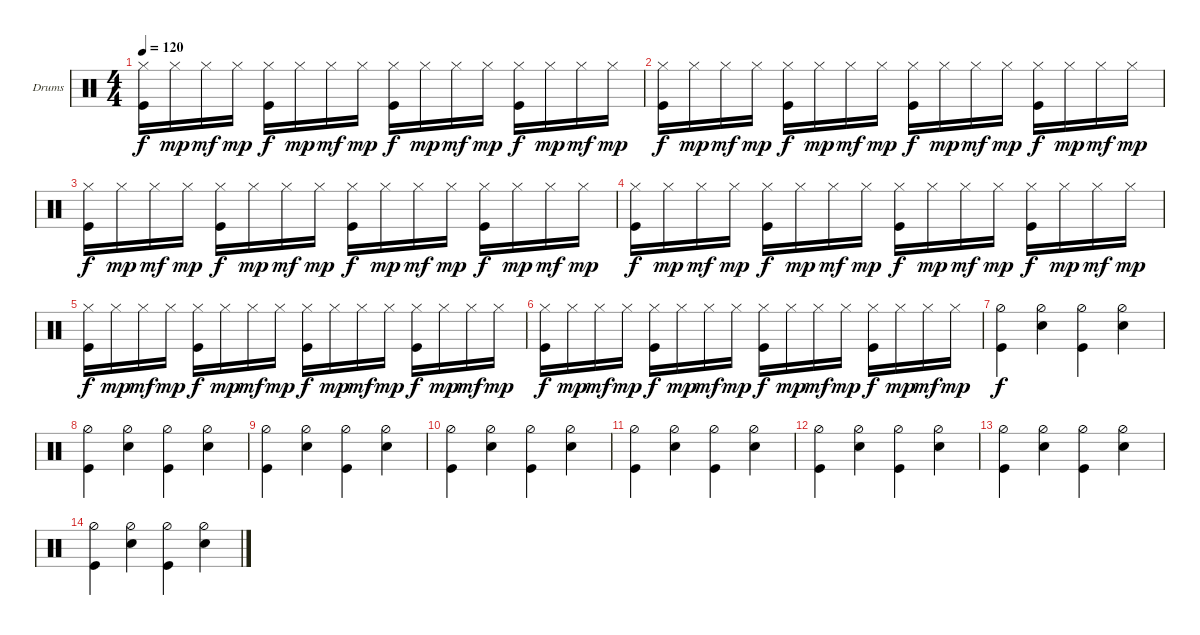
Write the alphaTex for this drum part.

\defaultSystemsLayout 4
\bracketExtendMode groupsimilarinstruments
\firstSystemTrackNameOrientation horizontal
\otherSystemsTrackNameOrientation horizontal
\track ("Drumkit" "Drums") {instrument percussion}
\staff {score}
\articulation defaults
\ts (4 4)
\tempo 120
\clef neutral
\ks c
("Kick (hit)" "Hi-Hat (closed)").16{dy f} "Hi-Hat (closed)".16{dy mp} "Hi-Hat (closed)".16{dy mf} "Hi-Hat (closed)".16{dy mp} ("Kick (hit)" "Hi-Hat (closed)").16{dy f} "Hi-Hat (closed)".16{dy mp} "Hi-Hat (closed)".16{dy mf} "Hi-Hat (closed)".16{dy mp} ("Kick (hit)" "Hi-Hat (closed)").16{dy f} "Hi-Hat (closed)".16{dy mp} "Hi-Hat (closed)".16{dy mf} "Hi-Hat (closed)".16{dy mp} ("Kick (hit)" "Hi-Hat (closed)").16{dy f} "Hi-Hat (closed)".16{dy mp} "Hi-Hat (closed)".16{dy mf} "Hi-Hat (closed)".16{dy mp} |
("Kick (hit)" "Hi-Hat (closed)").16{dy f} "Hi-Hat (closed)".16{dy mp} "Hi-Hat (closed)".16{dy mf} "Hi-Hat (closed)".16{dy mp} ("Kick (hit)" "Hi-Hat (closed)").16{dy f} "Hi-Hat (closed)".16{dy mp} "Hi-Hat (closed)".16{dy mf} "Hi-Hat (closed)".16{dy mp} ("Kick (hit)" "Hi-Hat (closed)").16{dy f} "Hi-Hat (closed)".16{dy mp} "Hi-Hat (closed)".16{dy mf} "Hi-Hat (closed)".16{dy mp} ("Kick (hit)" "Hi-Hat (closed)").16{dy f} "Hi-Hat (closed)".16{dy mp} "Hi-Hat (closed)".16{dy mf} "Hi-Hat (closed)".16{dy mp} |
("Kick (hit)" "Hi-Hat (closed)").16{dy f} "Hi-Hat (closed)".16{dy mp} "Hi-Hat (closed)".16{dy mf} "Hi-Hat (closed)".16{dy mp} ("Kick (hit)" "Hi-Hat (closed)").16{dy f} "Hi-Hat (closed)".16{dy mp} "Hi-Hat (closed)".16{dy mf} "Hi-Hat (closed)".16{dy mp} ("Kick (hit)" "Hi-Hat (closed)").16{dy f} "Hi-Hat (closed)".16{dy mp} "Hi-Hat (closed)".16{dy mf} "Hi-Hat (closed)".16{dy mp} ("Kick (hit)" "Hi-Hat (closed)").16{dy f} "Hi-Hat (closed)".16{dy mp} "Hi-Hat (closed)".16{dy mf} "Hi-Hat (closed)".16{dy mp} |
("Kick (hit)" "Hi-Hat (closed)").16{dy f} "Hi-Hat (closed)".16{dy mp} "Hi-Hat (closed)".16{dy mf} "Hi-Hat (closed)".16{dy mp} ("Kick (hit)" "Hi-Hat (closed)").16{dy f} "Hi-Hat (closed)".16{dy mp} "Hi-Hat (closed)".16{dy mf} "Hi-Hat (closed)".16{dy mp} ("Kick (hit)" "Hi-Hat (closed)").16{dy f} "Hi-Hat (closed)".16{dy mp} "Hi-Hat (closed)".16{dy mf} "Hi-Hat (closed)".16{dy mp} ("Kick (hit)" "Hi-Hat (closed)").16{dy f} "Hi-Hat (closed)".16{dy mp} "Hi-Hat (closed)".16{dy mf} "Hi-Hat (closed)".16{dy mp} |
("Kick (hit)" "Hi-Hat (closed)").16{dy f} "Hi-Hat (closed)".16{dy mp} "Hi-Hat (closed)".16{dy mf} "Hi-Hat (closed)".16{dy mp} ("Kick (hit)" "Hi-Hat (closed)").16{dy f} "Hi-Hat (closed)".16{dy mp} "Hi-Hat (closed)".16{dy mf} "Hi-Hat (closed)".16{dy mp} ("Kick (hit)" "Hi-Hat (closed)").16{dy f} "Hi-Hat (closed)".16{dy mp} "Hi-Hat (closed)".16{dy mf} "Hi-Hat (closed)".16{dy mp} ("Kick (hit)" "Hi-Hat (closed)").16{dy f} "Hi-Hat (closed)".16{dy mp} "Hi-Hat (closed)".16{dy mf} "Hi-Hat (closed)".16{dy mp} |
("Kick (hit)" "Hi-Hat (closed)").16{dy f} "Hi-Hat (closed)".16{dy mp} "Hi-Hat (closed)".16{dy mf} "Hi-Hat (closed)".16{dy mp} ("Kick (hit)" "Hi-Hat (closed)").16{dy f} "Hi-Hat (closed)".16{dy mp} "Hi-Hat (closed)".16{dy mf} "Hi-Hat (closed)".16{dy mp} ("Kick (hit)" "Hi-Hat (closed)").16{dy f} "Hi-Hat (closed)".16{dy mp} "Hi-Hat (closed)".16{dy mf} "Hi-Hat (closed)".16{dy mp} ("Kick (hit)" "Hi-Hat (closed)").16{dy f} "Hi-Hat (closed)".16{dy mp} "Hi-Hat (closed)".16{dy mf} "Hi-Hat (closed)".16{dy mp} |
("Kick (hit)" "Hi-Hat (half)").4{dy f} ("Snare (hit) 2" "Hi-Hat (half)").4 ("Kick (hit)" "Hi-Hat (half)").4 ("Snare (hit) 2" "Hi-Hat (half)").4 |
("Kick (hit)" "Hi-Hat (half)").4 ("Snare (hit) 2" "Hi-Hat (half)").4 ("Kick (hit)" "Hi-Hat (half)").4 ("Snare (hit) 2" "Hi-Hat (half)").4 |
("Kick (hit)" "Hi-Hat (half)").4 ("Snare (hit) 2" "Hi-Hat (half)").4 ("Kick (hit)" "Hi-Hat (half)").4 ("Snare (hit) 2" "Hi-Hat (half)").4 |
("Kick (hit)" "Hi-Hat (half)").4 ("Snare (hit) 2" "Hi-Hat (half)").4 ("Kick (hit)" "Hi-Hat (half)").4 ("Snare (hit) 2" "Hi-Hat (half)").4 |
("Kick (hit)" "Hi-Hat (half)").4 ("Snare (hit) 2" "Hi-Hat (half)").4 ("Kick (hit)" "Hi-Hat (half)").4 ("Snare (hit) 2" "Hi-Hat (half)").4 |
("Kick (hit)" "Hi-Hat (half)").4 ("Snare (hit) 2" "Hi-Hat (half)").4 ("Kick (hit)" "Hi-Hat (half)").4 ("Snare (hit) 2" "Hi-Hat (half)").4 |
("Kick (hit)" "Hi-Hat (half)").4 ("Snare (hit) 2" "Hi-Hat (half)").4 ("Kick (hit)" "Hi-Hat (half)").4 ("Snare (hit) 2" "Hi-Hat (half)").4 |
("Kick (hit)" "Hi-Hat (half)").4 ("Snare (hit) 2" "Hi-Hat (half)").4 ("Kick (hit)" "Hi-Hat (half)").4 ("Snare (hit) 2" "Hi-Hat (half)").4
